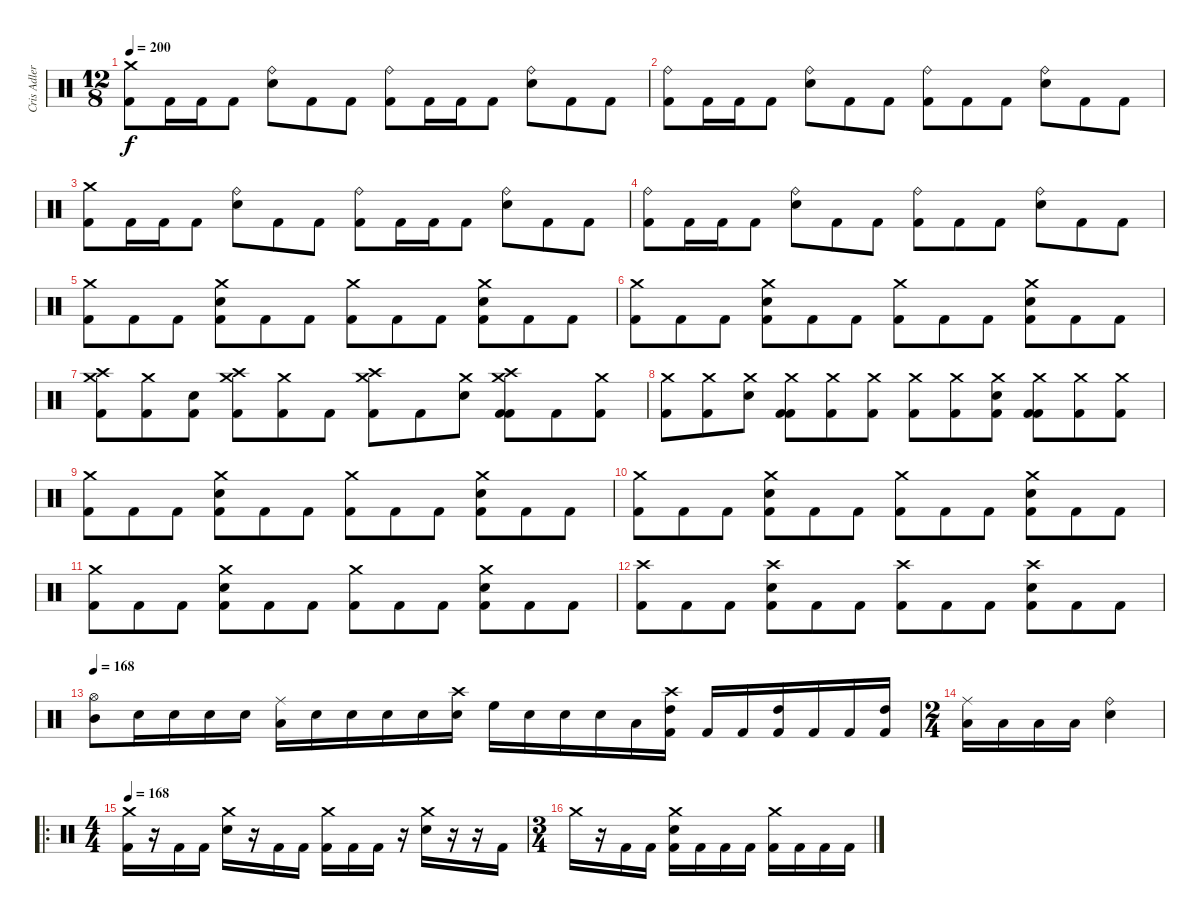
\track ("Cris Adler" "Cris Adler") {instrument percussion}
\staff {score}
\articulation defaults
\ts (12 8)
\tempo 200
\clef neutral
\ks c
("Crash medium (hit)" "Kick (hit) 2").8{dy f} "Kick (hit) 2".16 "Kick (hit) 2".16 "Kick (hit) 2".8 ("Ride (bell)" "Electric Snare (hit)").8 "Kick (hit) 2".8 "Kick (hit) 2".8 ("Ride (bell)" "Kick (hit) 2").8 "Kick (hit) 2".16 "Kick (hit) 2".16 "Kick (hit) 2".8 ("Ride (bell)" "Electric Snare (hit)").8 "Kick (hit) 2".8 "Kick (hit) 2".8 |
("Ride (bell)" "Kick (hit) 2").8 "Kick (hit) 2".16 "Kick (hit) 2".16 "Kick (hit) 2".8 ("Ride (bell)" "Electric Snare (hit)").8 "Kick (hit) 2".8 "Kick (hit) 2".8 ("Ride (bell)" "Kick (hit) 2").8 "Kick (hit) 2".8 "Kick (hit) 2".8 ("Ride (bell)" "Electric Snare (hit)").8 "Kick (hit) 2".8 "Kick (hit) 2".8 |
("Crash medium (hit)" "Kick (hit) 2").8 "Kick (hit) 2".16 "Kick (hit) 2".16 "Kick (hit) 2".8 ("Ride (bell)" "Electric Snare (hit)").8 "Kick (hit) 2".8 "Kick (hit) 2".8 ("Ride (bell)" "Kick (hit) 2").8 "Kick (hit) 2".16 "Kick (hit) 2".16 "Kick (hit) 2".8 ("Ride (bell)" "Electric Snare (hit)").8 "Kick (hit) 2".8 "Kick (hit) 2".8 |
("Ride (bell)" "Kick (hit) 2").8 "Kick (hit) 2".16 "Kick (hit) 2".16 "Kick (hit) 2".8 ("Ride (bell)" "Electric Snare (hit)").8 "Kick (hit) 2".8 "Kick (hit) 2".8 ("Ride (bell)" "Kick (hit) 2").8 "Kick (hit) 2".8 "Kick (hit) 2".8 ("Ride (bell)" "Electric Snare (hit)").8 "Kick (hit) 2".8 "Kick (hit) 2".8 |
("Crash medium (hit)" "Kick (hit) 2").8 "Kick (hit) 2".8 "Kick (hit) 2".8 ("Crash medium (hit)" "Kick (hit) 2" "Electric Snare (hit)").8 "Kick (hit) 2".8 "Kick (hit) 2".8 ("Crash medium (hit)" "Kick (hit) 2").8 "Kick (hit) 2".8 "Kick (hit) 2".8 ("Crash medium (hit)" "Kick (hit) 2" "Electric Snare (hit)").8 "Kick (hit) 2".8 "Kick (hit) 2".8 |
("Crash medium (hit)" "Kick (hit) 2").8 "Kick (hit) 2".8 "Kick (hit) 2".8 ("Crash medium (hit)" "Kick (hit) 2" "Electric Snare (hit)").8 "Kick (hit) 2".8 "Kick (hit) 2".8 ("Crash medium (hit)" "Kick (hit) 2").8 "Kick (hit) 2".8 "Kick (hit) 2".8 ("Crash medium (hit)" "Kick (hit) 2" "Electric Snare (hit)").8 "Kick (hit) 2".8 "Kick (hit) 2".8 |
("Crash high (hit)" "Crash medium (hit)" "Kick (hit) 2").8 ("Crash medium (hit)" "Kick (hit) 2").8 ("Kick (hit) 2" "Electric Snare (hit)").8 ("Crash high (hit)" "Crash medium (hit)" "Kick (hit) 2").8 ("Crash medium (hit)" "Kick (hit) 2").8 "Kick (hit) 2".8 ("Crash high (hit)" "Crash medium (hit)" "Kick (hit) 2").8 "Kick (hit) 2".8 ("Crash medium (hit)" "Electric Snare (hit)").8 ("Crash high (hit)" "Crash medium (hit)" "Kick (hit) 2" "Kick (hit) 2").8 "Kick (hit) 2".8 ("Crash medium (hit)" "Kick (hit) 2").8 |
("Crash medium (hit)" "Kick (hit) 2").8 ("Crash medium (hit)" "Kick (hit) 2").8 ("Crash medium (hit)" "Electric Snare (hit)").8 ("Crash medium (hit)" "Kick (hit) 2" "Kick (hit) 2").8 ("Crash medium (hit)" "Kick (hit) 2").8 ("Crash medium (hit)" "Kick (hit) 2").8 ("Crash medium (hit)" "Kick (hit) 2").8 ("Crash medium (hit)" "Kick (hit) 2").8 ("Crash medium (hit)" "Kick (hit) 2" "Electric Snare (hit)").8 ("Crash medium (hit)" "Kick (hit) 2" "Kick (hit) 2").8 ("Crash medium (hit)" "Kick (hit) 2").8 ("Crash medium (hit)" "Kick (hit) 2").8 |
("Crash medium (hit)" "Kick (hit) 2").8 "Kick (hit) 2".8 "Kick (hit) 2".8 ("Crash medium (hit)" "Kick (hit) 2" "Electric Snare (hit)").8 "Kick (hit) 2".8 "Kick (hit) 2".8 ("Crash medium (hit)" "Kick (hit) 2").8 "Kick (hit) 2".8 "Kick (hit) 2".8 ("Crash medium (hit)" "Kick (hit) 2" "Electric Snare (hit)").8 "Kick (hit) 2".8 "Kick (hit) 2".8 |
("Crash medium (hit)" "Kick (hit) 2").8 "Kick (hit) 2".8 "Kick (hit) 2".8 ("Crash medium (hit)" "Kick (hit) 2" "Electric Snare (hit)").8 "Kick (hit) 2".8 "Kick (hit) 2".8 ("Crash medium (hit)" "Kick (hit) 2").8 "Kick (hit) 2".8 "Kick (hit) 2".8 ("Crash medium (hit)" "Kick (hit) 2" "Electric Snare (hit)").8 "Kick (hit) 2".8 "Kick (hit) 2".8 |
("Crash medium (hit)" "Kick (hit) 2").8 "Kick (hit) 2".8 "Kick (hit) 2".8 ("Crash medium (hit)" "Kick (hit) 2" "Electric Snare (hit)").8 "Kick (hit) 2".8 "Kick (hit) 2".8 ("Crash medium (hit)" "Kick (hit) 2").8 "Kick (hit) 2".8 "Kick (hit) 2".8 ("Crash medium (hit)" "Kick (hit) 2" "Electric Snare (hit)").8 "Kick (hit) 2".8 "Kick (hit) 2".8 |
("Crash high (hit)" "Kick (hit) 2").8 "Kick (hit) 2".8 "Kick (hit) 2".8 ("Crash high (hit)" "Kick (hit) 2" "Electric Snare (hit)").8 "Kick (hit) 2".8 "Kick (hit) 2".8 ("Crash high (hit)" "Kick (hit) 2").8 "Kick (hit) 2".8 "Kick (hit) 2".8 ("Crash high (hit)" "Kick (hit) 2" "Electric Snare (hit)").8 "Kick (hit) 2".8 "Kick (hit) 2".8 |
\tempo 168
("Mid Tom (hit)" "Hi-Hat (open)").8 "Electric Snare (hit)".16 "Electric Snare (hit)".16 "Electric Snare (hit)".16 "Electric Snare (hit)".16 ("Low Tom (hit)" "Ride (middle)").16 "Electric Snare (hit)".16 "Electric Snare (hit)".16 "Electric Snare (hit)".16 "Electric Snare (hit)".16 ("Electric Snare (hit)" "Crash high (hit)").16 "High Floor Tom (hit)".16 "Electric Snare (hit)".16 "Electric Snare (hit)".16 "Electric Snare (hit)".16 "Low Tom (hit)".16 ("High Tom (hit)" "Kick (hit) 2" "Crash high (hit)").16 "Kick (hit) 2".16 "Kick (hit) 2".16 ("High Tom (hit)" "Kick (hit) 2").16 "Kick (hit) 2".16 "Kick (hit) 2".16 ("High Tom (hit)" "Kick (hit) 2").16 |
\ts (2 4)
("Low Floor Tom (hit)" "Ride (middle)").16 "Low Floor Tom (hit)".16 "Low Floor Tom (hit)".16 "Low Floor Tom (hit)".16 ("Ride (bell)" "Electric Snare (hit)").4 |
\ro
\ts (4 4)
\tempo 168
("Crash medium (hit)" "Kick (hit) 2").16 r.16 "Kick (hit) 2".16 "Kick (hit) 2".16 ("Crash medium (hit)" "Electric Snare (hit)").16 r.16 "Kick (hit) 2".16 "Kick (hit) 2".16 ("Crash medium (hit)" "Kick (hit) 2").16 "Kick (hit) 2".16 "Kick (hit) 2".16 r.16 ("Crash medium (hit)" "Electric Snare (hit)").16 r.16 r.16 "Kick (hit) 2".16 |
\ts (3 4)
"Crash medium (hit)".16 r.16 "Kick (hit) 2".16 "Kick (hit) 2".16 ("Crash medium (hit)" "Electric Snare (hit)" "Kick (hit) 2").16 "Kick (hit) 2".16 "Kick (hit) 2".16 "Kick (hit) 2".16 ("Crash medium (hit)" "Kick (hit) 2").16 "Kick (hit) 2".16 "Kick (hit) 2".16 "Kick (hit) 2".16
